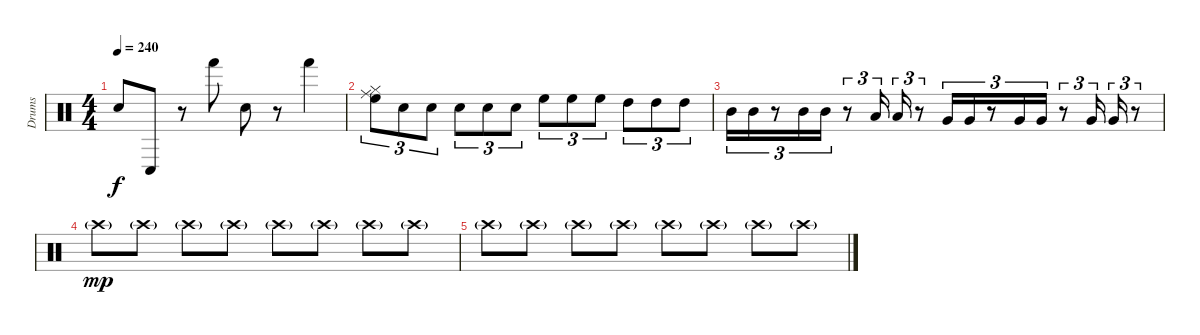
\track ("Drums" "Drums") {instrument percussion}
\staff {score}
\articulation defaults
\ts (4 4)
\tempo 240
\clef neutral
\ks c "Hand Clap (hit)".8{dy f} "Conga low (hit)".8
r.8 "Hand (hit)".8 "Hand Clap (hit)".8 r.8 "Hand (hit)".4 |
("Ride (middle)" "Hi-Hat (closed)" "High Floor Tom (hit)").8{tu (3 2)} "Electric Snare (hit)".8{tu (3 2)} "Electric Snare (hit)".8{tu (3 2)} "Electric Snare (hit)".8{tu (3 2)} "Electric Snare (hit)".8{tu (3 2)} "Electric Snare (hit)".8{tu (3 2)} "High Floor Tom (hit)".8{tu (3 2)} "High Floor Tom (hit)".8{tu (3 2)} "High Floor Tom (hit)".8{tu (3 2)} "High Tom (hit)".8{tu (3 2)} "High Tom (hit)".8{tu (3 2)} "High Tom (hit)".8{tu (3 2)} |
"Mid Tom (hit)".16{tu (3 2)} "Mid Tom (hit)".16{tu (3 2)} r.8{tu (3 2)} "Mid Tom (hit)".16{tu (3 2)} "Mid Tom (hit)".16{tu (3 2)} r.8{tu (3 2)} "Low Tom (hit)".16{tu (3 2)} "Low Tom (hit)".16{tu (3 2)} r.8{tu (3 2)} "Very Low Tom (hit)".16{tu (3 2)} "Very Low Tom (hit)".16{tu (3 2)} r.8{tu (3 2)} "Very Low Tom (hit)".16{tu (3 2)} "Very Low Tom (hit)".16{tu (3 2)} r.8{tu (3 2)} "Very Low Tom (hit)".16{tu (3 2)} "Very Low Tom (hit)".16{tu (3 2)} r.8{tu (3 2)} |
"Crash high (hit)"{g}.8{dy mp} "Crash high (hit)"{g}.8 "Crash high (hit)"{g}.8 "Crash high (hit)"{g}.8 "Crash high (hit)"{g}.8 "Crash high (hit)"{g}.8 "Crash high (hit)"{g}.8 "Crash high (hit)"{g}.8 |
"Crash high (hit)"{g}.8 "Crash high (hit)"{g}.8 "Crash high (hit)"{g}.8 "Crash high (hit)"{g}.8 "Crash high (hit)"{g}.8 "Crash high (hit)"{g}.8 "Crash high (hit)"{g}.8 "Crash high (hit)"{g}.8
